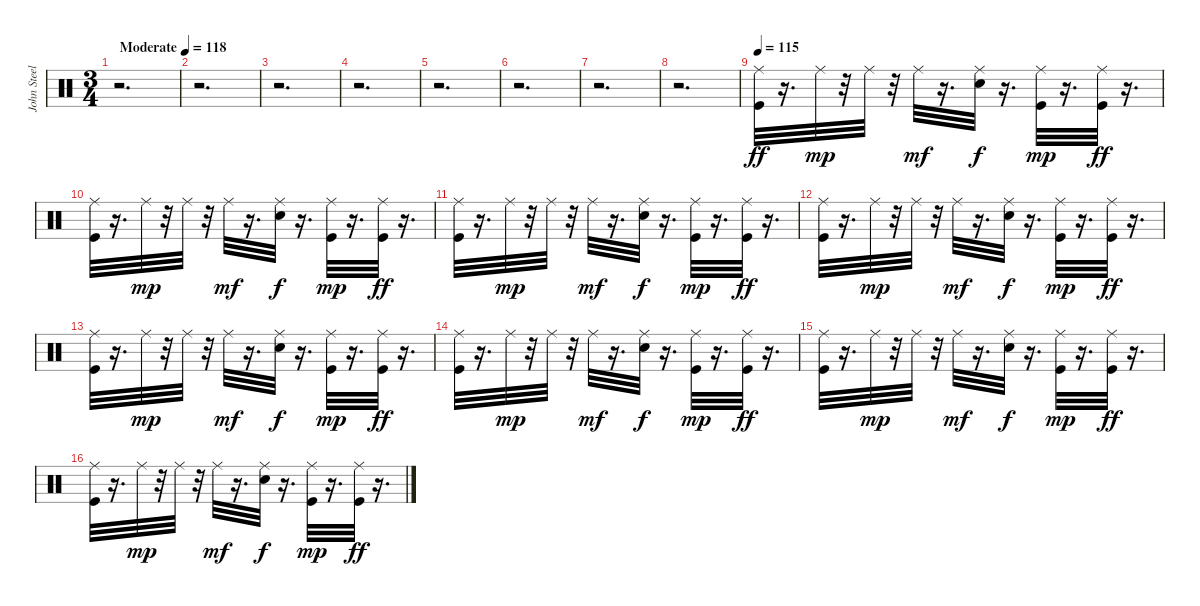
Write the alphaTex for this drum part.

\track ("John Steel" "John Steel") {instrument percussion}
\staff {score}
\articulation defaults
\ts (3 4)
\tempo (118 "Moderate")
\clef neutral
\ks c
r.2{d dy ff} |
r.2{d} |
r.2{d} |
r.2{d} |
r.2{d} |
r.2{d} |
r.2{d} |
r.2{d} |
\tempo 115
("Kick (hit)" "Ride (middle)").32 r.16{d} "Ride (middle)".32{dy mp} r.32 "Ride (middle)".32 r.32 "Ride (middle)".32{dy mf} r.16{d} ("Snare (hit) 2" "Ride (middle)").32{dy f} r.16{d} ("Kick (hit)" "Ride (middle)").32{dy mp} r.16{d} ("Kick (hit)" "Ride (middle)").32{dy ff} r.16{d} |
("Kick (hit)" "Ride (middle)").32 r.16{d} "Ride (middle)".32{dy mp} r.32 "Ride (middle)".32 r.32 "Ride (middle)".32{dy mf} r.16{d} ("Snare (hit) 2" "Ride (middle)").32{dy f} r.16{d} ("Kick (hit)" "Ride (middle)").32{dy mp} r.16{d} ("Kick (hit)" "Ride (middle)").32{dy ff} r.16{d} |
("Kick (hit)" "Ride (middle)").32 r.16{d} "Ride (middle)".32{dy mp} r.32 "Ride (middle)".32 r.32 "Ride (middle)".32{dy mf} r.16{d} ("Snare (hit) 2" "Ride (middle)").32{dy f} r.16{d} ("Kick (hit)" "Ride (middle)").32{dy mp} r.16{d} ("Kick (hit)" "Ride (middle)").32{dy ff} r.16{d} |
("Kick (hit)" "Ride (middle)").32 r.16{d} "Ride (middle)".32{dy mp} r.32 "Ride (middle)".32 r.32 "Ride (middle)".32{dy mf} r.16{d} ("Snare (hit) 2" "Ride (middle)").32{dy f} r.16{d} ("Kick (hit)" "Ride (middle)").32{dy mp} r.16{d} ("Kick (hit)" "Ride (middle)").32{dy ff} r.16{d} |
("Kick (hit)" "Ride (middle)").32 r.16{d} "Ride (middle)".32{dy mp} r.32 "Ride (middle)".32 r.32 "Ride (middle)".32{dy mf} r.16{d} ("Snare (hit) 2" "Ride (middle)").32{dy f} r.16{d} ("Kick (hit)" "Ride (middle)").32{dy mp} r.16{d} ("Kick (hit)" "Ride (middle)").32{dy ff} r.16{d} |
("Kick (hit)" "Ride (middle)").32 r.16{d} "Ride (middle)".32{dy mp} r.32 "Ride (middle)".32 r.32 "Ride (middle)".32{dy mf} r.16{d} ("Snare (hit) 2" "Ride (middle)").32{dy f} r.16{d} ("Kick (hit)" "Ride (middle)").32{dy mp} r.16{d} ("Kick (hit)" "Ride (middle)").32{dy ff} r.16{d} |
("Kick (hit)" "Ride (middle)").32 r.16{d} "Ride (middle)".32{dy mp} r.32 "Ride (middle)".32 r.32 "Ride (middle)".32{dy mf} r.16{d} ("Snare (hit) 2" "Ride (middle)").32{dy f} r.16{d} ("Kick (hit)" "Ride (middle)").32{dy mp} r.16{d} ("Kick (hit)" "Ride (middle)").32{dy ff} r.16{d} |
("Kick (hit)" "Ride (middle)").32 r.16{d} "Ride (middle)".32{dy mp} r.32 "Ride (middle)".32 r.32 "Ride (middle)".32{dy mf} r.16{d} ("Snare (hit) 2" "Ride (middle)").32{dy f} r.16{d} ("Kick (hit)" "Ride (middle)").32{dy mp} r.16{d} ("Kick (hit)" "Ride (middle)").32{dy ff} r.16{d}
